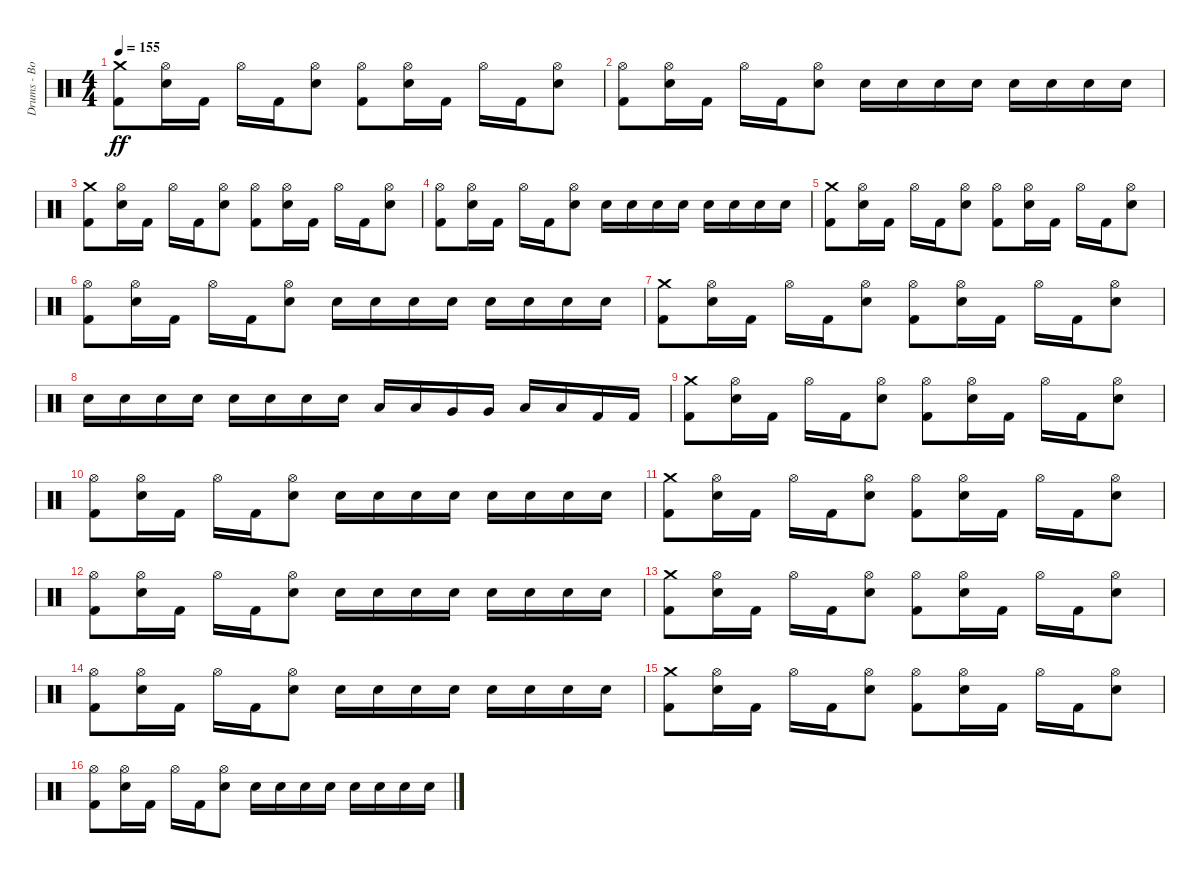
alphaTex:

\track ("Drums - Bobby Schayer" "Drums - Bo") {instrument percussion}
\staff {score}
\articulation defaults
\ts (4 4)
\tempo 155
\clef neutral
\ks c
("Kick (hit) 2" "Crash medium (hit)").8{dy ff} ("Electric Snare (hit)" "Hi-Hat (open)").16 "Kick (hit) 2".16 "Hi-Hat (open)".16 "Kick (hit) 2".16 ("Electric Snare (hit)" "Hi-Hat (open)").8 ("Kick (hit) 2" "Hi-Hat (open)").8 ("Electric Snare (hit)" "Hi-Hat (open)").16 "Kick (hit) 2".16 "Hi-Hat (open)".16 "Kick (hit) 2".16 ("Electric Snare (hit)" "Hi-Hat (open)").8 |
("Kick (hit) 2" "Hi-Hat (open)").8 ("Electric Snare (hit)" "Hi-Hat (open)").16 "Kick (hit) 2".16 "Hi-Hat (open)".16 "Kick (hit) 2".16 ("Electric Snare (hit)" "Hi-Hat (open)").8 "Electric Snare (hit)".16 "Electric Snare (hit)".16 "Electric Snare (hit)".16 "Electric Snare (hit)".16 "Electric Snare (hit)".16 "Electric Snare (hit)".16 "Electric Snare (hit)".16 "Electric Snare (hit)".16 |
("Kick (hit) 2" "Crash medium (hit)").8 ("Electric Snare (hit)" "Hi-Hat (open)").16 "Kick (hit) 2".16 "Hi-Hat (open)".16 "Kick (hit) 2".16 ("Electric Snare (hit)" "Hi-Hat (open)").8 ("Kick (hit) 2" "Hi-Hat (open)").8 ("Electric Snare (hit)" "Hi-Hat (open)").16 "Kick (hit) 2".16 "Hi-Hat (open)".16 "Kick (hit) 2".16 ("Electric Snare (hit)" "Hi-Hat (open)").8 |
("Kick (hit) 2" "Hi-Hat (open)").8 ("Electric Snare (hit)" "Hi-Hat (open)").16 "Kick (hit) 2".16 "Hi-Hat (open)".16 "Kick (hit) 2".16 ("Electric Snare (hit)" "Hi-Hat (open)").8 "Electric Snare (hit)".16 "Electric Snare (hit)".16 "Electric Snare (hit)".16 "Electric Snare (hit)".16 "Electric Snare (hit)".16 "Electric Snare (hit)".16 "Electric Snare (hit)".16 "Electric Snare (hit)".16 |
("Kick (hit) 2" "Crash medium (hit)").8 ("Electric Snare (hit)" "Hi-Hat (open)").16 "Kick (hit) 2".16 "Hi-Hat (open)".16 "Kick (hit) 2".16 ("Electric Snare (hit)" "Hi-Hat (open)").8 ("Kick (hit) 2" "Hi-Hat (open)").8 ("Electric Snare (hit)" "Hi-Hat (open)").16 "Kick (hit) 2".16 "Hi-Hat (open)".16 "Kick (hit) 2".16 ("Electric Snare (hit)" "Hi-Hat (open)").8 |
("Kick (hit) 2" "Hi-Hat (open)").8 ("Electric Snare (hit)" "Hi-Hat (open)").16 "Kick (hit) 2".16 "Hi-Hat (open)".16 "Kick (hit) 2".16 ("Electric Snare (hit)" "Hi-Hat (open)").8 "Electric Snare (hit)".16 "Electric Snare (hit)".16 "Electric Snare (hit)".16 "Electric Snare (hit)".16 "Electric Snare (hit)".16 "Electric Snare (hit)".16 "Electric Snare (hit)".16 "Electric Snare (hit)".16 |
("Kick (hit) 2" "Crash medium (hit)").8 ("Electric Snare (hit)" "Hi-Hat (open)").16 "Kick (hit) 2".16 "Hi-Hat (open)".16 "Kick (hit) 2".16 ("Electric Snare (hit)" "Hi-Hat (open)").8 ("Kick (hit) 2" "Hi-Hat (open)").8 ("Electric Snare (hit)" "Hi-Hat (open)").16 "Kick (hit) 2".16 "Hi-Hat (open)".16 "Kick (hit) 2".16 ("Electric Snare (hit)" "Hi-Hat (open)").8 |
"Electric Snare (hit)".16 "Electric Snare (hit)".16 "Electric Snare (hit)".16 "Electric Snare (hit)".16 "Electric Snare (hit)".16 "Electric Snare (hit)".16 "Electric Snare (hit)".16 "Electric Snare (hit)".16 "Low Tom (hit)".16 "Low Tom (hit)".16 "Very Low Tom (hit)".16 "Very Low Tom (hit)".16 "Low Floor Tom (hit)".16 "Low Floor Tom (hit)".16 "Kick (hit) 2".16 "Kick (hit) 2".16 |
("Kick (hit) 2" "Crash medium (hit)").8 ("Electric Snare (hit)" "Hi-Hat (open)").16 "Kick (hit) 2".16 "Hi-Hat (open)".16 "Kick (hit) 2".16 ("Electric Snare (hit)" "Hi-Hat (open)").8 ("Kick (hit) 2" "Hi-Hat (open)").8 ("Electric Snare (hit)" "Hi-Hat (open)").16 "Kick (hit) 2".16 "Hi-Hat (open)".16 "Kick (hit) 2".16 ("Electric Snare (hit)" "Hi-Hat (open)").8 |
("Kick (hit) 2" "Hi-Hat (open)").8 ("Electric Snare (hit)" "Hi-Hat (open)").16 "Kick (hit) 2".16 "Hi-Hat (open)".16 "Kick (hit) 2".16 ("Electric Snare (hit)" "Hi-Hat (open)").8 "Electric Snare (hit)".16 "Electric Snare (hit)".16 "Electric Snare (hit)".16 "Electric Snare (hit)".16 "Electric Snare (hit)".16 "Electric Snare (hit)".16 "Electric Snare (hit)".16 "Electric Snare (hit)".16 |
("Kick (hit) 2" "Crash medium (hit)").8 ("Electric Snare (hit)" "Hi-Hat (open)").16 "Kick (hit) 2".16 "Hi-Hat (open)".16 "Kick (hit) 2".16 ("Electric Snare (hit)" "Hi-Hat (open)").8 ("Kick (hit) 2" "Hi-Hat (open)").8 ("Electric Snare (hit)" "Hi-Hat (open)").16 "Kick (hit) 2".16 "Hi-Hat (open)".16 "Kick (hit) 2".16 ("Electric Snare (hit)" "Hi-Hat (open)").8 |
("Kick (hit) 2" "Hi-Hat (open)").8 ("Electric Snare (hit)" "Hi-Hat (open)").16 "Kick (hit) 2".16 "Hi-Hat (open)".16 "Kick (hit) 2".16 ("Electric Snare (hit)" "Hi-Hat (open)").8 "Electric Snare (hit)".16 "Electric Snare (hit)".16 "Electric Snare (hit)".16 "Electric Snare (hit)".16 "Electric Snare (hit)".16 "Electric Snare (hit)".16 "Electric Snare (hit)".16 "Electric Snare (hit)".16 |
("Kick (hit) 2" "Crash medium (hit)").8 ("Electric Snare (hit)" "Hi-Hat (open)").16 "Kick (hit) 2".16 "Hi-Hat (open)".16 "Kick (hit) 2".16 ("Electric Snare (hit)" "Hi-Hat (open)").8 ("Kick (hit) 2" "Hi-Hat (open)").8 ("Electric Snare (hit)" "Hi-Hat (open)").16 "Kick (hit) 2".16 "Hi-Hat (open)".16 "Kick (hit) 2".16 ("Electric Snare (hit)" "Hi-Hat (open)").8 |
("Kick (hit) 2" "Hi-Hat (open)").8 ("Electric Snare (hit)" "Hi-Hat (open)").16 "Kick (hit) 2".16 "Hi-Hat (open)".16 "Kick (hit) 2".16 ("Electric Snare (hit)" "Hi-Hat (open)").8 "Electric Snare (hit)".16 "Electric Snare (hit)".16 "Electric Snare (hit)".16 "Electric Snare (hit)".16 "Electric Snare (hit)".16 "Electric Snare (hit)".16 "Electric Snare (hit)".16 "Electric Snare (hit)".16 |
("Kick (hit) 2" "Crash medium (hit)").8 ("Electric Snare (hit)" "Hi-Hat (open)").16 "Kick (hit) 2".16 "Hi-Hat (open)".16 "Kick (hit) 2".16 ("Electric Snare (hit)" "Hi-Hat (open)").8 ("Kick (hit) 2" "Hi-Hat (open)").8 ("Electric Snare (hit)" "Hi-Hat (open)").16 "Kick (hit) 2".16 "Hi-Hat (open)".16 "Kick (hit) 2".16 ("Electric Snare (hit)" "Hi-Hat (open)").8 |
("Kick (hit) 2" "Hi-Hat (open)").8 ("Electric Snare (hit)" "Hi-Hat (open)").16 "Kick (hit) 2".16 "Hi-Hat (open)".16 "Kick (hit) 2".16 ("Electric Snare (hit)" "Hi-Hat (open)").8 "Electric Snare (hit)".16 "Electric Snare (hit)".16 "Electric Snare (hit)".16 "Electric Snare (hit)".16 "Electric Snare (hit)".16 "Electric Snare (hit)".16 "Electric Snare (hit)".16 "Electric Snare (hit)".16
